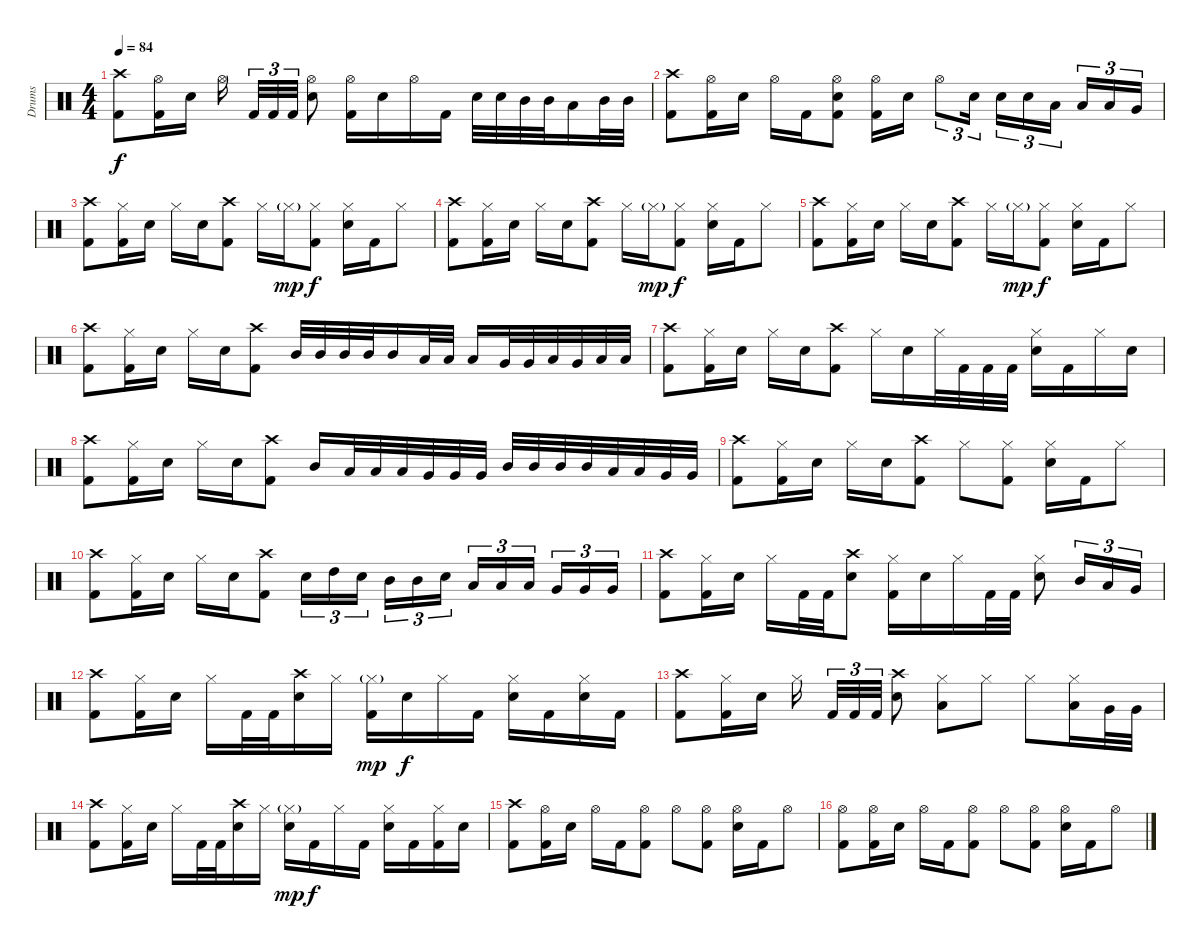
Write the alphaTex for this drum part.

\track ("Drums" "Drums") {instrument percussion}
\staff {score}
\articulation defaults
\ts (4 4)
\tempo 84
\clef neutral
\ks c
("Crash high (hit)" "Kick (hit) 2").8{dy f} ("Hi-Hat (open)" "Kick (hit) 2").16 "Electric Snare (hit)".16 "Hi-Hat (open)".16 "Kick (hit) 2".32{tu (3 2)} "Kick (hit) 2".32{tu (3 2)} "Kick (hit) 2".32{tu (3 2)} ("Hi-Hat (open)" "Electric Snare (hit)").8 ("Hi-Hat (open)" "Kick (hit) 2").16 "Electric Snare (hit)".16 "Hi-Hat (open)".16 "Kick (hit) 2".16 "Electric Snare (hit)".32 "Electric Snare (hit)".32 "Mid Tom (hit)".32 "Mid Tom (hit)".32 "Low Tom (hit)".16 "Mid Tom (hit)".32 "Mid Tom (hit)".32 |
("Crash high (hit)" "Kick (hit) 2").8 ("Hi-Hat (open)" "Kick (hit) 2").16 "Electric Snare (hit)".16 "Hi-Hat (open)".16 "Kick (hit) 2".16 ("Hi-Hat (open)" "Electric Snare (hit)" "Kick (hit) 2").8 ("Hi-Hat (open)" "Kick (hit) 2").16 "Electric Snare (hit)".16 "Hi-Hat (open)".8{tu (3 2)} "Electric Snare (hit)".16{tu (3 2)} "Electric Snare (hit)".16{tu (3 2)} "Electric Snare (hit)".16{tu (3 2)} "Low Tom (hit)".16{tu (3 2)} "Low Tom (hit)".16{tu (3 2)} "Low Tom (hit)".16{tu (3 2)} "Very Low Tom (hit)".16{tu (3 2)} |
("Crash high (hit)" "Kick (hit) 2").8 ("Hi-Hat (closed)" "Kick (hit) 2").16 "Electric Snare (hit)".16 "Hi-Hat (closed)".16 "Electric Snare (hit)".16 ("Crash high (hit)" "Kick (hit) 2").8 "Hi-Hat (closed)".16 "Hi-Hat (closed)"{g}.16{dy mp} ("Hi-Hat (closed)" "Kick (hit) 2").8{dy f} ("Hi-Hat (closed)" "Electric Snare (hit)").16 "Kick (hit) 2".16 "Hi-Hat (closed)".8 |
("Crash high (hit)" "Kick (hit) 2").8 ("Hi-Hat (closed)" "Kick (hit) 2").16 "Electric Snare (hit)".16 "Hi-Hat (closed)".16 "Electric Snare (hit)".16 ("Crash high (hit)" "Kick (hit) 2").8 "Hi-Hat (closed)".16 "Hi-Hat (closed)"{g}.16{dy mp} ("Hi-Hat (closed)" "Kick (hit) 2").8{dy f} ("Hi-Hat (closed)" "Electric Snare (hit)").16 "Kick (hit) 2".16 "Hi-Hat (closed)".8 |
("Crash high (hit)" "Kick (hit) 2").8 ("Hi-Hat (closed)" "Kick (hit) 2").16 "Electric Snare (hit)".16 "Hi-Hat (closed)".16 "Electric Snare (hit)".16 ("Crash high (hit)" "Kick (hit) 2").8 "Hi-Hat (closed)".16 "Hi-Hat (closed)"{g}.16{dy mp} ("Hi-Hat (closed)" "Kick (hit) 2").8{dy f} ("Hi-Hat (closed)" "Electric Snare (hit)").16 "Kick (hit) 2".16 "Hi-Hat (closed)".8 |
("Crash high (hit)" "Kick (hit) 2").8 ("Hi-Hat (closed)" "Kick (hit) 2").16 "Electric Snare (hit)".16 "Hi-Hat (closed)".16 "Electric Snare (hit)".16 ("Crash high (hit)" "Kick (hit) 2").8 "Mid Tom (hit)".32 "Mid Tom (hit)".32 "Mid Tom (hit)".32 "Mid Tom (hit)".32 "Mid Tom (hit)".16 "Low Tom (hit)".32 "Low Tom (hit)".32 "Low Tom (hit)".16 "Very Low Tom (hit)".32 "Very Low Tom (hit)".32 "Low Tom (hit)".32 "Very Low Tom (hit)".32 "Low Floor Tom (hit)".32 "Low Floor Tom (hit)".32 |
("Crash high (hit)" "Kick (hit) 2").8 ("Hi-Hat (closed)" "Kick (hit) 2").16 "Electric Snare (hit)".16 "Hi-Hat (closed)".16 "Electric Snare (hit)".16 ("Crash high (hit)" "Kick (hit) 2").8 "Hi-Hat (closed)".16 "Electric Snare (hit)".16 "Hi-Hat (closed)".32 "Kick (hit) 2".32 "Kick (hit) 2".32 "Kick (hit) 2".32 ("Hi-Hat (closed)" "Electric Snare (hit)").16 "Kick (hit) 2".16 "Hi-Hat (closed)".16 "Electric Snare (hit)".16 |
("Crash high (hit)" "Kick (hit) 2").8 ("Hi-Hat (closed)" "Kick (hit) 2").16 "Electric Snare (hit)".16 "Hi-Hat (closed)".16 "Electric Snare (hit)".16 ("Crash high (hit)" "Kick (hit) 2").8 "Mid Tom (hit)".16 "Low Tom (hit)".32 "Low Tom (hit)".32 "Low Tom (hit)".32 "Very Low Tom (hit)".32 "Very Low Tom (hit)".32 "Very Low Tom (hit)".32 "Mid Tom (hit)".32 "Mid Tom (hit)".32 "Mid Tom (hit)".32 "Mid Tom (hit)".32 "Low Tom (hit)".32 "Low Tom (hit)".32 "Very Low Tom (hit)".32 "Very Low Tom (hit)".32 |
("Crash high (hit)" "Kick (hit) 2").8 ("Hi-Hat (closed)" "Kick (hit) 2").16 "Electric Snare (hit)".16 "Hi-Hat (closed)".16 "Electric Snare (hit)".16 ("Crash high (hit)" "Kick (hit) 2").8 "Hi-Hat (closed)".8 ("Hi-Hat (closed)" "Kick (hit) 2").8 ("Hi-Hat (closed)" "Electric Snare (hit)").16 "Kick (hit) 2".16 "Hi-Hat (closed)".8 |
("Crash high (hit)" "Kick (hit) 2").8 ("Hi-Hat (closed)" "Kick (hit) 2").16 "Electric Snare (hit)".16 "Hi-Hat (closed)".16 "Electric Snare (hit)".16 ("Crash high (hit)" "Kick (hit) 2").8 "Electric Snare (hit)".16{tu (3 2)} "High Tom (hit)".16{tu (3 2)} "Electric Snare (hit)".16{tu (3 2)} "Mid Tom (hit)".16{tu (3 2)} "Mid Tom (hit)".16{tu (3 2)} "Electric Snare (hit)".16{tu (3 2)} "Low Tom (hit)".16{tu (3 2)} "Low Tom (hit)".16{tu (3 2)} "Low Tom (hit)".16{tu (3 2)} "Very Low Tom (hit)".16{tu (3 2)} "Very Low Tom (hit)".16{tu (3 2)} "Very Low Tom (hit)".16{tu (3 2)} |
("Crash high (hit)" "Kick (hit) 2").8 ("Hi-Hat (closed)" "Kick (hit) 2").16 "Electric Snare (hit)".16 "Hi-Hat (closed)".16 "Kick (hit) 2".32 "Kick (hit) 2".32 ("Crash high (hit)" "Electric Snare (hit)").8 ("Hi-Hat (closed)" "Kick (hit) 2").16 "Electric Snare (hit)".16 "Hi-Hat (closed)".16 "Kick (hit) 2".32 "Kick (hit) 2".32 ("Hi-Hat (closed)" "Electric Snare (hit)").8 "Mid Tom (hit)".16{tu (3 2)} "Low Tom (hit)".16{tu (3 2)} "Very Low Tom (hit)".16{tu (3 2)} |
("Crash high (hit)" "Kick (hit) 2").8 ("Hi-Hat (closed)" "Kick (hit) 2").16 "Electric Snare (hit)".16 "Hi-Hat (closed)".16 "Kick (hit) 2".32 "Kick (hit) 2".32 ("Crash high (hit)" "Electric Snare (hit)").16 "Hi-Hat (closed)".16 ("Hi-Hat (closed)"{g} "Kick (hit) 2").16{dy mp} "Electric Snare (hit)".16{dy f} "Hi-Hat (closed)".16 "Kick (hit) 2".16 ("Hi-Hat (closed)" "Electric Snare (hit)").16 "Kick (hit) 2".16 ("Hi-Hat (closed)" "Electric Snare (hit)").16 "Kick (hit) 2".16 |
("Crash high (hit)" "Kick (hit) 2").8 ("Hi-Hat (closed)" "Kick (hit) 2").16 "Electric Snare (hit)".16 "Hi-Hat (closed)".16 "Kick (hit) 2".32{tu (3 2)} "Kick (hit) 2".32{tu (3 2)} "Kick (hit) 2".32{tu (3 2)} ("Crash high (hit)" "Electric Snare (hit)").8 ("Hi-Hat (closed)" "Low Floor Tom (hit)").8 "Hi-Hat (closed)".8 "Hi-Hat (closed)".8 ("Hi-Hat (closed)" "Low Tom (hit)").16 "Very Low Tom (hit)".32 "Very Low Tom (hit)".32 |
("Crash high (hit)" "Kick (hit) 2").8 ("Hi-Hat (closed)" "Kick (hit) 2").16 "Electric Snare (hit)".16 "Hi-Hat (closed)".16 "Kick (hit) 2".32 "Kick (hit) 2".32 ("Crash high (hit)" "Electric Snare (hit)").16 "Hi-Hat (closed)".16 ("Hi-Hat (closed)"{g} "Electric Snare (hit)").16{dy mp} "Kick (hit) 2".16{dy f} "Hi-Hat (closed)".16 "Kick (hit) 2".16 ("Hi-Hat (closed)" "Electric Snare (hit)").16 "Kick (hit) 2".16 ("Hi-Hat (closed)" "Kick (hit) 2").16 "Electric Snare (hit)".16 |
("Crash high (hit)" "Kick (hit) 2").8 ("Hi-Hat (open)" "Kick (hit) 2").16 "Electric Snare (hit)".16 "Hi-Hat (open)".16 "Kick (hit) 2".16 ("Hi-Hat (open)" "Kick (hit) 2").8 "Hi-Hat (open)".8 ("Hi-Hat (open)" "Kick (hit) 2").8 ("Hi-Hat (open)" "Electric Snare (hit)").16 "Kick (hit) 2".16 "Hi-Hat (open)".8 |
("Hi-Hat (open)" "Kick (hit) 2").8 ("Hi-Hat (open)" "Kick (hit) 2").16 "Electric Snare (hit)".16 "Hi-Hat (open)".16 "Kick (hit) 2".16 ("Hi-Hat (open)" "Kick (hit) 2").8 "Hi-Hat (open)".8 ("Hi-Hat (open)" "Kick (hit) 2").8 ("Hi-Hat (open)" "Electric Snare (hit)").16 "Kick (hit) 2".16 "Hi-Hat (open)".8
